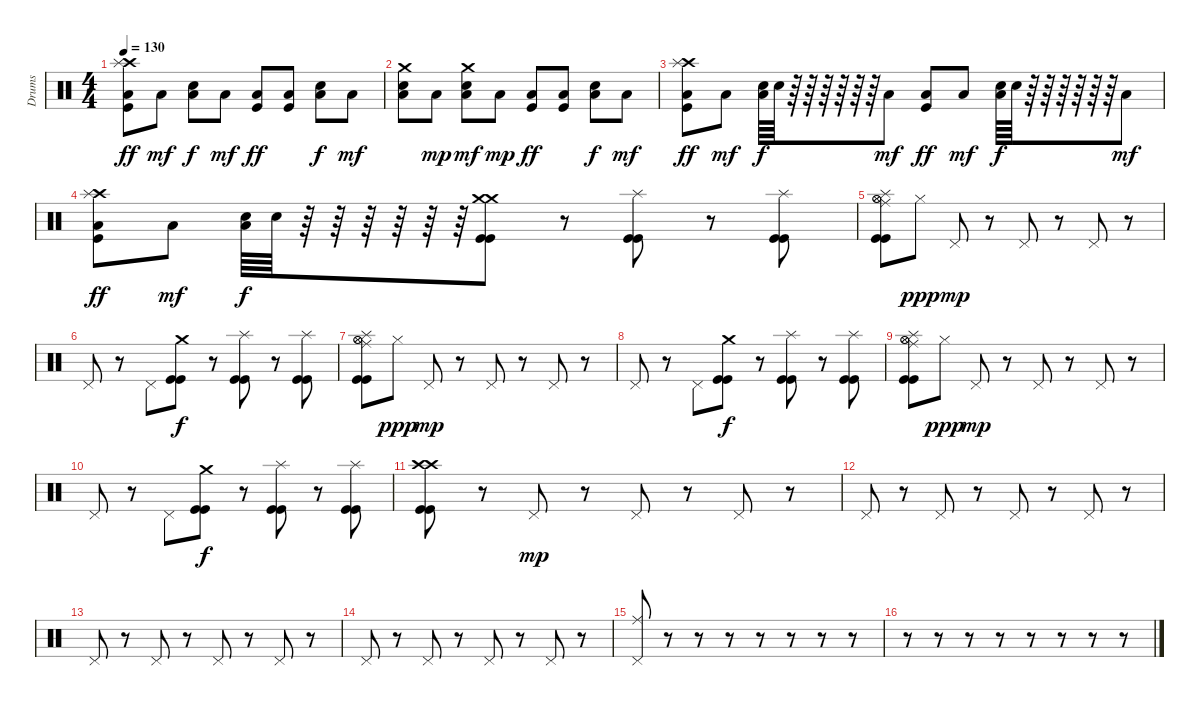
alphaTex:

\track ("Drums" "Drums") {instrument percussion}
\staff {score}
\articulation defaults
\ts (4 4)
\tempo 130
\clef neutral
\ks c
("Crash high (hit)" "Splash (hit)" "Low Floor Tom (hit)" "Kick (hit)").8{dy ff} "Low Floor Tom (hit)".8{dy mf} ("Snare (hit) 2" "Low Floor Tom (hit)").8{dy f} "Low Floor Tom (hit)".8{dy mf} ("Low Floor Tom (hit)" "Kick (hit)").8{dy ff} ("Low Floor Tom (hit)" "Kick (hit)").8 ("Snare (hit) 2" "Low Floor Tom (hit)").8{dy f} "Low Floor Tom (hit)".8{dy mf} |
("Crash medium (hit)" "Snare (hit) 2" "Low Floor Tom (hit)").8 "Low Floor Tom (hit)".8{dy mp} ("Crash medium (hit)" "Snare (hit) 2" "Low Floor Tom (hit)").8{dy mf} "Low Floor Tom (hit)".8{dy mp} ("Low Floor Tom (hit)" "Kick (hit)").8{dy ff} ("Low Floor Tom (hit)" "Kick (hit)").8 ("Snare (hit) 2" "Low Floor Tom (hit)").8{dy f} "Low Floor Tom (hit)".8{dy mf} |
("Crash high (hit)" "Splash (hit)" "Low Floor Tom (hit)" "Kick (hit)").8{dy ff} "Low Floor Tom (hit)".8{dy mf} ("Snare (hit) 2" "Low Floor Tom (hit)").64{dy f} "Snare (hit) 2".64 r.64 r.64 r.64 r.64 r.64 r.64 "Low Floor Tom (hit)".8{dy mf} ("Low Floor Tom (hit)" "Kick (hit)").8{dy ff} "Low Floor Tom (hit)".8{dy mf} ("Snare (hit) 2" "Low Floor Tom (hit)").64{dy f} "Snare (hit) 2".64 r.64 r.64 r.64 r.64 r.64 r.64 "Low Floor Tom (hit)".8{dy mf} |
("Crash high (hit)" "Splash (hit)" "Low Floor Tom (hit)" "Kick (hit)").8{dy ff} "Low Floor Tom (hit)".8{dy mf} ("Snare (hit) 2" "Low Floor Tom (hit)").64{dy f} "Snare (hit) 2".64 r.64 r.64 r.64 r.64 r.64 r.64 ("Crash medium (hit)" "Crash medium (hit)" "Kick (hit)" "Kick (hit)").8 r.8 ("Splash (hit)" "Kick (hit)" "Kick (hit)").8 r.8 ("Splash (hit)" "Kick (hit)" "Kick (hit)").8 |
("Hi-Hat (open)" "Hi-Hat (open)" "Ride (middle)" "Splash (hit)" "Kick (hit)" "Kick (hit)").8 "Hi-Hat (closed)".8{dy ppp} "Pedal Hi-Hat (hit)".8{dy mp} r.8 "Pedal Hi-Hat (hit)".8 r.8 "Pedal Hi-Hat (hit)".8 r.8 |
"Pedal Hi-Hat (hit)".8 r.8 "Pedal Hi-Hat (hit)".8 ("Crash medium (hit)" "Kick (hit)" "Kick (hit)").8{dy f} r.8 ("Splash (hit)" "Kick (hit)" "Kick (hit)").8 r.8 ("Splash (hit)" "Kick (hit)" "Kick (hit)").8 |
("Hi-Hat (open)" "Hi-Hat (open)" "Ride (middle)" "Splash (hit)" "Kick (hit)" "Kick (hit)").8 "Hi-Hat (closed)".8{dy ppp} "Pedal Hi-Hat (hit)".8{dy mp} r.8 "Pedal Hi-Hat (hit)".8 r.8 "Pedal Hi-Hat (hit)".8 r.8 |
"Pedal Hi-Hat (hit)".8 r.8 "Pedal Hi-Hat (hit)".8 ("Crash medium (hit)" "Kick (hit)" "Kick (hit)").8{dy f} r.8 ("Splash (hit)" "Kick (hit)" "Kick (hit)").8 r.8 ("Splash (hit)" "Kick (hit)" "Kick (hit)").8 |
("Hi-Hat (open)" "Hi-Hat (open)" "Ride (middle)" "Splash (hit)" "Kick (hit)" "Kick (hit)").8 "Hi-Hat (closed)".8{dy ppp} "Pedal Hi-Hat (hit)".8{dy mp} r.8 "Pedal Hi-Hat (hit)".8 r.8 "Pedal Hi-Hat (hit)".8 r.8 |
"Pedal Hi-Hat (hit)".8 r.8 "Pedal Hi-Hat (hit)".8 ("Crash medium (hit)" "Kick (hit)" "Kick (hit)").8{dy f} r.8 ("Splash (hit)" "Kick (hit)" "Kick (hit)").8 r.8 ("Splash (hit)" "Kick (hit)" "Kick (hit)").8 |
("Crash high (hit)" "Crash high (hit)" "Kick (hit)" "Kick (hit)").8 r.8 "Pedal Hi-Hat (hit)".8{dy mp} r.8 "Pedal Hi-Hat (hit)".8 r.8 "Pedal Hi-Hat (hit)".8 r.8 |
"Pedal Hi-Hat (hit)".8 r.8 "Pedal Hi-Hat (hit)".8 r.8 "Pedal Hi-Hat (hit)".8 r.8 "Pedal Hi-Hat (hit)".8 r.8 |
"Pedal Hi-Hat (hit)".8 r.8 "Pedal Hi-Hat (hit)".8 r.8 "Pedal Hi-Hat (hit)".8 r.8 "Pedal Hi-Hat (hit)".8 r.8 |
"Pedal Hi-Hat (hit)".8 r.8 "Pedal Hi-Hat (hit)".8 r.8 "Pedal Hi-Hat (hit)".8 r.8 "Pedal Hi-Hat (hit)".8 r.8 |
("Ride (middle)" "Pedal Hi-Hat (hit)").8 r.8 r.8 r.8 r.8 r.8 r.8 r.8 |
r.8 r.8 r.8 r.8 r.8 r.8 r.8 r.8
